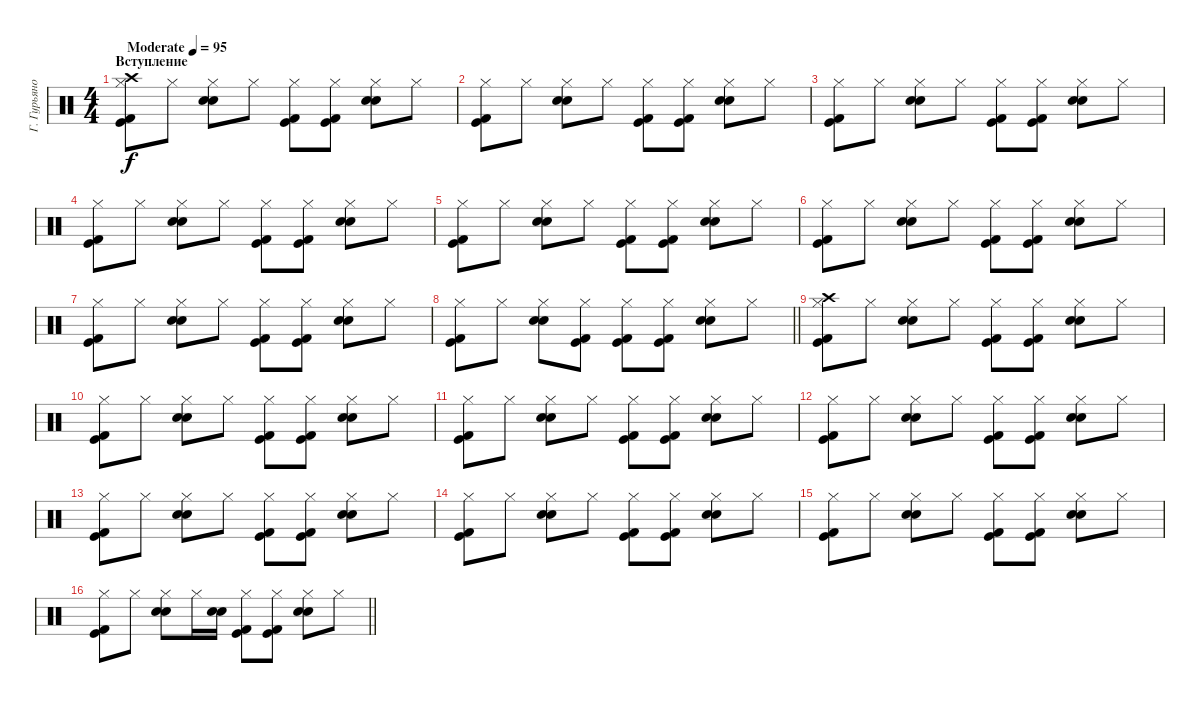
\track ("Г. Гурьянов" "Г. Гурьяно") {instrument percussion}
\staff {score}
\articulation defaults
\ts (4 4)
\section ("" "Вступление")
\tempo (95 "Moderate")
\clef neutral
\ks c
("Kick (hit) 2" "Kick (hit)" "Crash high (hit)" "Hi-Hat (closed)").8{dy f} "Hi-Hat (closed)".8 ("Electric Snare (hit)" "Snare (hit) 2" "Hi-Hat (closed)").8 "Hi-Hat (closed)".8 ("Kick (hit) 2" "Kick (hit)" "Hi-Hat (closed)").8 ("Kick (hit) 2" "Kick (hit)" "Hi-Hat (closed)").8 ("Electric Snare (hit)" "Snare (hit) 2" "Hi-Hat (closed)").8 "Hi-Hat (closed)".8 |
("Kick (hit) 2" "Kick (hit)" "Hi-Hat (closed)").8 "Hi-Hat (closed)".8 ("Electric Snare (hit)" "Snare (hit) 2" "Hi-Hat (closed)").8 "Hi-Hat (closed)".8 ("Kick (hit) 2" "Kick (hit)" "Hi-Hat (closed)").8 ("Kick (hit) 2" "Kick (hit)" "Hi-Hat (closed)").8 ("Electric Snare (hit)" "Snare (hit) 2" "Hi-Hat (closed)").8 "Hi-Hat (closed)".8 |
("Kick (hit) 2" "Kick (hit)" "Hi-Hat (closed)").8 "Hi-Hat (closed)".8 ("Electric Snare (hit)" "Snare (hit) 2" "Hi-Hat (closed)").8 "Hi-Hat (closed)".8 ("Kick (hit) 2" "Kick (hit)" "Hi-Hat (closed)").8 ("Kick (hit) 2" "Kick (hit)" "Hi-Hat (closed)").8 ("Electric Snare (hit)" "Snare (hit) 2" "Hi-Hat (closed)").8 "Hi-Hat (closed)".8 |
("Kick (hit) 2" "Kick (hit)" "Hi-Hat (closed)").8 "Hi-Hat (closed)".8 ("Electric Snare (hit)" "Snare (hit) 2" "Hi-Hat (closed)").8 "Hi-Hat (closed)".8 ("Kick (hit) 2" "Kick (hit)" "Hi-Hat (closed)").8 ("Kick (hit) 2" "Kick (hit)" "Hi-Hat (closed)").8 ("Electric Snare (hit)" "Snare (hit) 2" "Hi-Hat (closed)").8 "Hi-Hat (closed)".8 |
("Kick (hit) 2" "Kick (hit)" "Hi-Hat (closed)").8 "Hi-Hat (closed)".8 ("Electric Snare (hit)" "Snare (hit) 2" "Hi-Hat (closed)").8 "Hi-Hat (closed)".8 ("Kick (hit) 2" "Kick (hit)" "Hi-Hat (closed)").8 ("Kick (hit) 2" "Kick (hit)" "Hi-Hat (closed)").8 ("Electric Snare (hit)" "Snare (hit) 2" "Hi-Hat (closed)").8 "Hi-Hat (closed)".8 |
("Kick (hit) 2" "Kick (hit)" "Hi-Hat (closed)").8 "Hi-Hat (closed)".8 ("Electric Snare (hit)" "Snare (hit) 2" "Hi-Hat (closed)").8 "Hi-Hat (closed)".8 ("Kick (hit) 2" "Kick (hit)" "Hi-Hat (closed)").8 ("Kick (hit) 2" "Kick (hit)" "Hi-Hat (closed)").8 ("Electric Snare (hit)" "Snare (hit) 2" "Hi-Hat (closed)").8 "Hi-Hat (closed)".8 |
("Kick (hit) 2" "Kick (hit)" "Hi-Hat (closed)").8 "Hi-Hat (closed)".8 ("Electric Snare (hit)" "Snare (hit) 2" "Hi-Hat (closed)").8 "Hi-Hat (closed)".8 ("Kick (hit) 2" "Kick (hit)" "Hi-Hat (closed)").8 ("Kick (hit) 2" "Kick (hit)" "Hi-Hat (closed)").8 ("Electric Snare (hit)" "Snare (hit) 2" "Hi-Hat (closed)").8 "Hi-Hat (closed)".8 |
\barLineRight lightlight
("Kick (hit) 2" "Kick (hit)" "Hi-Hat (closed)").8 "Hi-Hat (closed)".8 ("Electric Snare (hit)" "Snare (hit) 2" "Hi-Hat (closed)").8 ("Kick (hit) 2" "Kick (hit)" "Hi-Hat (closed)").8 ("Kick (hit) 2" "Kick (hit)" "Hi-Hat (closed)").8 ("Kick (hit) 2" "Kick (hit)" "Hi-Hat (closed)").8 ("Electric Snare (hit)" "Snare (hit) 2" "Hi-Hat (closed)").8 "Hi-Hat (closed)".8 |
("Kick (hit) 2" "Kick (hit)" "Crash high (hit)" "Hi-Hat (closed)").8 "Hi-Hat (closed)".8 ("Electric Snare (hit)" "Snare (hit) 2" "Hi-Hat (closed)").8 "Hi-Hat (closed)".8 ("Kick (hit) 2" "Kick (hit)" "Hi-Hat (closed)").8 ("Kick (hit) 2" "Kick (hit)" "Hi-Hat (closed)").8 ("Electric Snare (hit)" "Snare (hit) 2" "Hi-Hat (closed)").8 "Hi-Hat (closed)".8 |
("Kick (hit) 2" "Kick (hit)" "Hi-Hat (closed)").8 "Hi-Hat (closed)".8 ("Electric Snare (hit)" "Snare (hit) 2" "Hi-Hat (closed)").8 "Hi-Hat (closed)".8 ("Kick (hit) 2" "Kick (hit)" "Hi-Hat (closed)").8 ("Kick (hit) 2" "Kick (hit)" "Hi-Hat (closed)").8 ("Electric Snare (hit)" "Snare (hit) 2" "Hi-Hat (closed)").8 "Hi-Hat (closed)".8 |
("Kick (hit) 2" "Kick (hit)" "Hi-Hat (closed)").8 "Hi-Hat (closed)".8 ("Electric Snare (hit)" "Snare (hit) 2" "Hi-Hat (closed)").8 "Hi-Hat (closed)".8 ("Kick (hit) 2" "Kick (hit)" "Hi-Hat (closed)").8 ("Kick (hit) 2" "Kick (hit)" "Hi-Hat (closed)").8 ("Electric Snare (hit)" "Snare (hit) 2" "Hi-Hat (closed)").8 "Hi-Hat (closed)".8 |
("Kick (hit) 2" "Kick (hit)" "Hi-Hat (closed)").8 "Hi-Hat (closed)".8 ("Electric Snare (hit)" "Snare (hit) 2" "Hi-Hat (closed)").8 "Hi-Hat (closed)".8 ("Kick (hit) 2" "Kick (hit)" "Hi-Hat (closed)").8 ("Kick (hit) 2" "Kick (hit)" "Hi-Hat (closed)").8 ("Electric Snare (hit)" "Snare (hit) 2" "Hi-Hat (closed)").8 "Hi-Hat (closed)".8 |
("Kick (hit) 2" "Kick (hit)" "Hi-Hat (closed)").8 "Hi-Hat (closed)".8 ("Electric Snare (hit)" "Snare (hit) 2" "Hi-Hat (closed)").8 "Hi-Hat (closed)".8 ("Kick (hit) 2" "Kick (hit)" "Hi-Hat (closed)").8 ("Kick (hit) 2" "Kick (hit)" "Hi-Hat (closed)").8 ("Electric Snare (hit)" "Snare (hit) 2" "Hi-Hat (closed)").8 "Hi-Hat (closed)".8 |
("Kick (hit) 2" "Kick (hit)" "Hi-Hat (closed)").8 "Hi-Hat (closed)".8 ("Electric Snare (hit)" "Snare (hit) 2" "Hi-Hat (closed)").8 "Hi-Hat (closed)".8 ("Kick (hit) 2" "Kick (hit)" "Hi-Hat (closed)").8 ("Kick (hit) 2" "Kick (hit)" "Hi-Hat (closed)").8 ("Electric Snare (hit)" "Snare (hit) 2" "Hi-Hat (closed)").8 "Hi-Hat (closed)".8 |
("Kick (hit) 2" "Kick (hit)" "Hi-Hat (closed)").8 "Hi-Hat (closed)".8 ("Electric Snare (hit)" "Snare (hit) 2" "Hi-Hat (closed)").8 "Hi-Hat (closed)".8 ("Kick (hit) 2" "Kick (hit)" "Hi-Hat (closed)").8 ("Kick (hit) 2" "Kick (hit)" "Hi-Hat (closed)").8 ("Electric Snare (hit)" "Snare (hit) 2" "Hi-Hat (closed)").8 "Hi-Hat (closed)".8 |
\barLineRight lightlight
("Kick (hit) 2" "Kick (hit)" "Hi-Hat (closed)").8 "Hi-Hat (closed)".8 ("Electric Snare (hit)" "Snare (hit) 2" "Hi-Hat (closed)").8 "Hi-Hat (closed)".16 ("Electric Snare (hit)" "Snare (hit) 2").16 ("Kick (hit) 2" "Kick (hit)" "Hi-Hat (closed)").8 ("Kick (hit) 2" "Kick (hit)" "Hi-Hat (closed)").8 ("Electric Snare (hit)" "Snare (hit) 2" "Hi-Hat (closed)").8 "Hi-Hat (closed)".8
